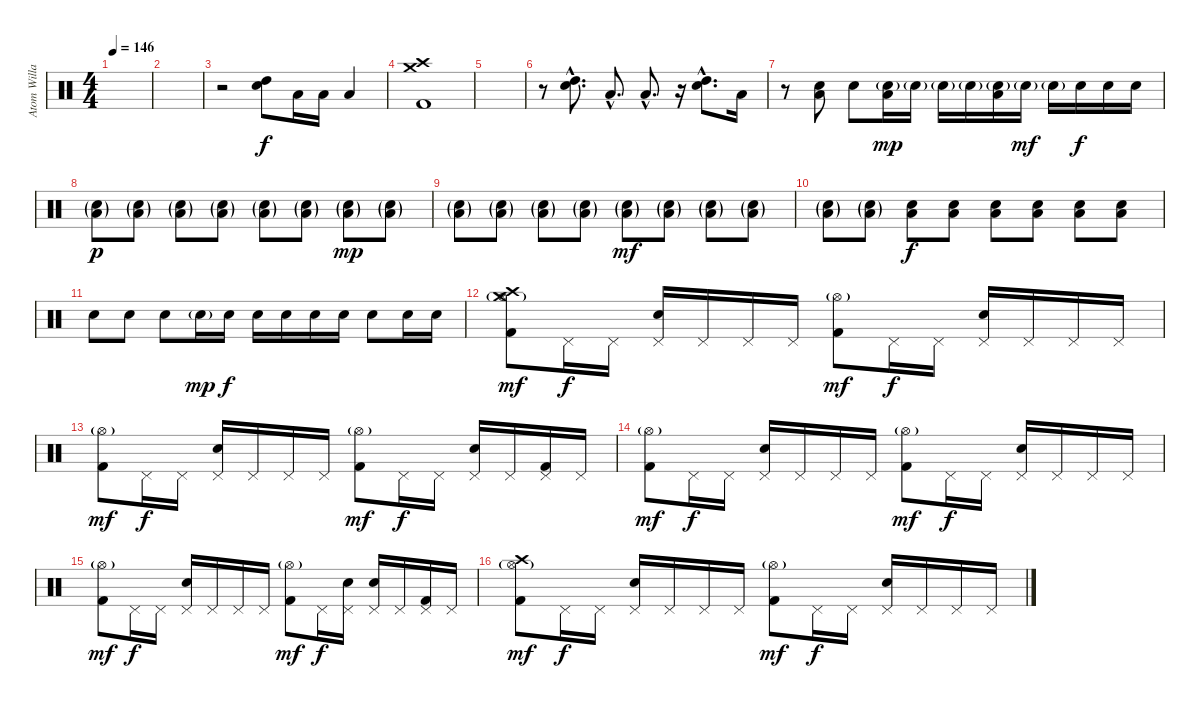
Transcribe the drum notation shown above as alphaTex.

\track ("Atom Willard" "Atom Willa") {instrument percussion}
\staff {score}
\articulation defaults
\ts (4 4)
\tempo 146
\clef neutral
\ks c
|
|
r.2 ("Electric Snare (hit)" "High Tom (hit)").8 "Low Tom (hit)".16 "Low Tom (hit)".16 "Low Floor Tom (hit)".4 |
("Crash high (hit)" "Crash medium (hit)" "Kick (hit) 2").1 |
|
r.8 ("Electric Snare (hit)"{hac} "High Tom (hit)"{hac}).8{d} "Low Tom (hit)"{hac}.8{d} "Low Floor Tom (hit)"{hac}.8{d} r.16 ("Electric Snare (hit)"{hac} "High Tom (hit)"{hac}).8{d} "Low Tom (hit)".16 |
r.8 ("Electric Snare (hit)" "Low Floor Tom (hit)").8 "Electric Snare (hit)".8 ("Electric Snare (hit)"{g} "Low Tom (hit)").16{dy mp} "Electric Snare (hit)"{g}.16 "Electric Snare (hit)"{g}.16 "Electric Snare (hit)"{g}.16 ("Electric Snare (hit)"{g} "Low Tom (hit)").16 "Electric Snare (hit)"{g}.16{dy mf} "Electric Snare (hit)"{g}.16 "Electric Snare (hit)".16{dy f} "Electric Snare (hit)".16 "Electric Snare (hit)".16 |
("Electric Snare (hit)"{g} "Low Floor Tom (hit)"{g}).8{dy p} ("Electric Snare (hit)"{g} "Low Floor Tom (hit)"{g}).8 ("Electric Snare (hit)"{g} "Low Floor Tom (hit)"{g}).8 ("Electric Snare (hit)"{g} "Low Floor Tom (hit)"{g}).8 ("Electric Snare (hit)"{g} "Low Floor Tom (hit)"{g}).8 ("Electric Snare (hit)"{g} "Low Floor Tom (hit)"{g}).8 ("Electric Snare (hit)"{g} "Low Floor Tom (hit)"{g}).8{dy mp} ("Electric Snare (hit)"{g} "Low Floor Tom (hit)"{g}).8 |
("Electric Snare (hit)"{g} "Low Floor Tom (hit)"{g}).8 ("Electric Snare (hit)"{g} "Low Floor Tom (hit)"{g}).8 ("Electric Snare (hit)"{g} "Low Floor Tom (hit)"{g}).8 ("Electric Snare (hit)"{g} "Low Floor Tom (hit)"{g}).8 ("Electric Snare (hit)"{g} "Low Floor Tom (hit)"{g}).8{dy mf} ("Electric Snare (hit)"{g} "Low Floor Tom (hit)"{g}).8 ("Electric Snare (hit)"{g} "Low Floor Tom (hit)"{g}).8 ("Electric Snare (hit)"{g} "Low Floor Tom (hit)"{g}).8 |
("Electric Snare (hit)"{g} "Low Floor Tom (hit)"{g}).8 ("Electric Snare (hit)"{g} "Low Floor Tom (hit)"{g}).8 ("Electric Snare (hit)" "Low Floor Tom (hit)").8{dy f} ("Electric Snare (hit)" "Low Floor Tom (hit)").8 ("Electric Snare (hit)" "Low Floor Tom (hit)").8 ("Electric Snare (hit)" "Low Floor Tom (hit)").8 ("Electric Snare (hit)" "Low Floor Tom (hit)").8 ("Electric Snare (hit)" "Low Floor Tom (hit)").8 |
"Electric Snare (hit)".8 "Electric Snare (hit)".8 "Electric Snare (hit)".8 "Electric Snare (hit)"{g}.16{dy mp} "Electric Snare (hit)".16{dy f} "Electric Snare (hit)".16 "Electric Snare (hit)".16 "Electric Snare (hit)".16 "Electric Snare (hit)".16 "Electric Snare (hit)".8 "Electric Snare (hit)".16 "Electric Snare (hit)".16 |
("Crash high (hit)" "Crash medium (hit)" "Hi-Hat (open)"{g} "Kick (hit) 2").8{dy mf} "Pedal Hi-Hat (hit)".16{dy f} "Pedal Hi-Hat (hit)".16 ("Pedal Hi-Hat (hit)" "Electric Snare (hit)").16 "Pedal Hi-Hat (hit)".16 "Pedal Hi-Hat (hit)".16 "Pedal Hi-Hat (hit)".16 ("Hi-Hat (open)"{g} "Kick (hit) 2").8{dy mf} "Pedal Hi-Hat (hit)".16{dy f} "Pedal Hi-Hat (hit)".16 ("Pedal Hi-Hat (hit)" "Electric Snare (hit)").16 "Pedal Hi-Hat (hit)".16 "Pedal Hi-Hat (hit)".16 "Pedal Hi-Hat (hit)".16 |
("Hi-Hat (open)"{g} "Kick (hit) 2").8{dy mf} "Pedal Hi-Hat (hit)".16{dy f} "Pedal Hi-Hat (hit)".16 ("Pedal Hi-Hat (hit)" "Electric Snare (hit)").16 "Pedal Hi-Hat (hit)".16 "Pedal Hi-Hat (hit)".16 "Pedal Hi-Hat (hit)".16 ("Hi-Hat (open)"{g} "Kick (hit) 2").8{dy mf} "Pedal Hi-Hat (hit)".16{dy f} "Pedal Hi-Hat (hit)".16 ("Pedal Hi-Hat (hit)" "Electric Snare (hit)").16 "Pedal Hi-Hat (hit)".16 ("Pedal Hi-Hat (hit)" "Kick (hit) 2").16 "Pedal Hi-Hat (hit)".16 |
("Hi-Hat (open)"{g} "Kick (hit) 2").8{dy mf} "Pedal Hi-Hat (hit)".16{dy f} "Pedal Hi-Hat (hit)".16 ("Pedal Hi-Hat (hit)" "Electric Snare (hit)").16 "Pedal Hi-Hat (hit)".16 "Pedal Hi-Hat (hit)".16 "Pedal Hi-Hat (hit)".16 ("Hi-Hat (open)"{g} "Kick (hit) 2").8{dy mf} "Pedal Hi-Hat (hit)".16{dy f} "Pedal Hi-Hat (hit)".16 ("Pedal Hi-Hat (hit)" "Electric Snare (hit)").16 "Pedal Hi-Hat (hit)".16 "Pedal Hi-Hat (hit)".16 "Pedal Hi-Hat (hit)".16 |
("Hi-Hat (open)"{g} "Kick (hit) 2").8{dy mf} "Pedal Hi-Hat (hit)".16{dy f} "Pedal Hi-Hat (hit)".16 ("Pedal Hi-Hat (hit)" "Electric Snare (hit)").16 "Pedal Hi-Hat (hit)".16 "Pedal Hi-Hat (hit)".16 "Pedal Hi-Hat (hit)".16 ("Hi-Hat (open)"{g} "Kick (hit) 2").8{dy mf} "Pedal Hi-Hat (hit)".16{dy f} ("Pedal Hi-Hat (hit)" "Electric Snare (hit)").16 ("Pedal Hi-Hat (hit)" "Electric Snare (hit)").16 "Pedal Hi-Hat (hit)".16 ("Pedal Hi-Hat (hit)" "Kick (hit) 2").16 "Pedal Hi-Hat (hit)".16 |
("Crash high (hit)" "Hi-Hat (open)"{g} "Kick (hit) 2").8{dy mf} "Pedal Hi-Hat (hit)".16{dy f} "Pedal Hi-Hat (hit)".16 ("Pedal Hi-Hat (hit)" "Electric Snare (hit)").16 "Pedal Hi-Hat (hit)".16 "Pedal Hi-Hat (hit)".16 "Pedal Hi-Hat (hit)".16 ("Hi-Hat (open)"{g} "Kick (hit) 2").8{dy mf} "Pedal Hi-Hat (hit)".16{dy f} "Pedal Hi-Hat (hit)".16 ("Pedal Hi-Hat (hit)" "Electric Snare (hit)").16 "Pedal Hi-Hat (hit)".16 "Pedal Hi-Hat (hit)".16 "Pedal Hi-Hat (hit)".16
